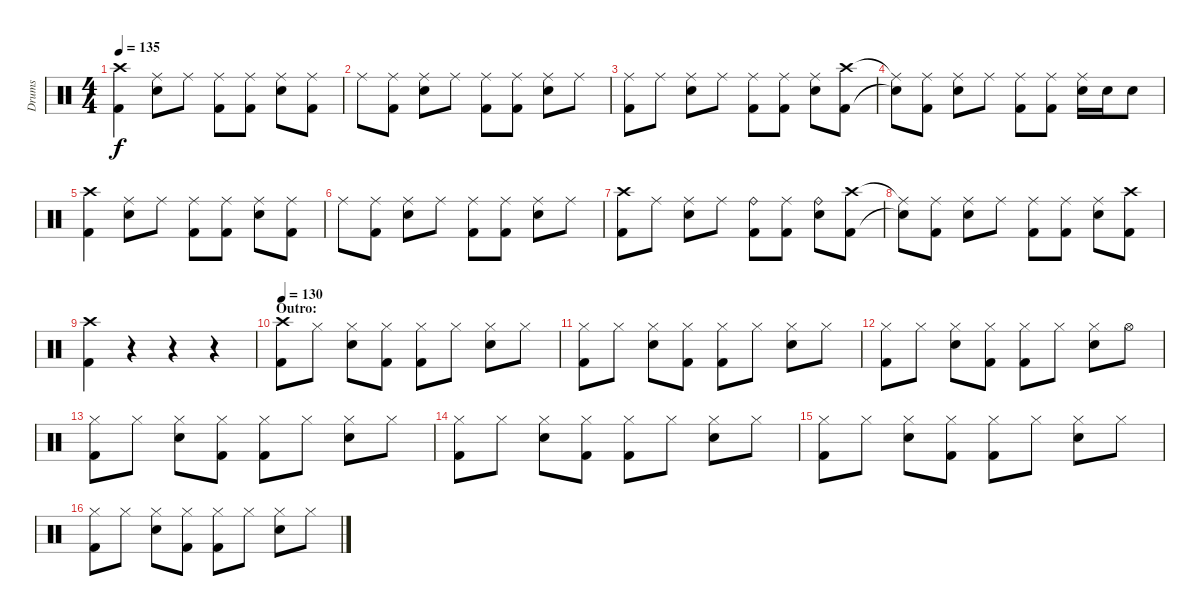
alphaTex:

\track ("Drums" "Drums") {instrument percussion}
\staff {score}
\articulation defaults
\ts (4 4)
\tempo 135
\clef neutral
\ks c
("Crash high (hit)" "Kick (hit) 2").4{dy f} ("Ride (middle)" "Electric Snare (hit)").8 "Ride (middle)".8 ("Ride (middle)" "Kick (hit) 2").8 ("Ride (middle)" "Kick (hit) 2").8 ("Ride (middle)" "Electric Snare (hit)").8 ("Ride (middle)" "Kick (hit) 2").8 |
"Ride (middle)".8 ("Ride (middle)" "Kick (hit) 2").8 ("Ride (middle)" "Electric Snare (hit)").8 "Ride (middle)".8 ("Ride (middle)" "Kick (hit) 2").8 ("Ride (middle)" "Kick (hit) 2").8 ("Ride (middle)" "Electric Snare (hit)").8 "Ride (middle)".8 |
("Ride (middle)" "Kick (hit) 2").8 "Ride (middle)".8 ("Ride (middle)" "Electric Snare (hit)").8 "Ride (middle)".8 ("Ride (middle)" "Kick (hit) 2").8 ("Ride (middle)" "Kick (hit) 2").8 ("Ride (middle)" "Electric Snare (hit)").8 ("Crash high (hit)" "Kick (hit) 2").8 |
("Ride (middle)"{t} "Snare (hit)"{t}).8 ("Ride (middle)" "Kick (hit) 2").8 ("Ride (middle)" "Electric Snare (hit)").8 "Ride (middle)".8 ("Ride (middle)" "Kick (hit) 2").8 ("Ride (middle)" "Kick (hit) 2").8 ("Ride (middle)" "Electric Snare (hit)").16 "Electric Snare (hit)".16 "Electric Snare (hit)".8 |
("Crash high (hit)" "Kick (hit) 2").4 ("Ride (middle)" "Electric Snare (hit)").8 "Ride (middle)".8 ("Ride (middle)" "Kick (hit) 2").8 ("Ride (middle)" "Kick (hit) 2").8 ("Ride (middle)" "Electric Snare (hit)").8 ("Ride (middle)" "Kick (hit) 2").8 |
"Ride (middle)".8 ("Ride (middle)" "Kick (hit) 2").8 ("Ride (middle)" "Electric Snare (hit)").8 "Ride (middle)".8 ("Ride (middle)" "Kick (hit) 2").8 ("Ride (middle)" "Kick (hit) 2").8 ("Ride (middle)" "Electric Snare (hit)").8 "Ride (middle)".8 |
("Crash high (hit)" "Kick (hit) 2").8 "Ride (middle)".8 ("Ride (middle)" "Electric Snare (hit)").8 "Ride (middle)".8 ("Ride (bell)" "Kick (hit) 2").8 ("Ride (middle)" "Kick (hit) 2").8 ("Ride (bell)" "Electric Snare (hit)").8 ("Crash high (hit)" "Kick (hit) 2").8 |
("Ride (middle)"{t} "Snare (hit)"{t}).8 ("Ride (middle)" "Kick (hit) 2").8 ("Ride (middle)" "Electric Snare (hit)").8 "Ride (middle)".8 ("Ride (middle)" "Kick (hit) 2").8 ("Ride (middle)" "Kick (hit) 2").8 ("Ride (middle)" "Electric Snare (hit)").8 ("Crash high (hit)" "Kick (hit) 2").8 |
("Crash high (hit)" "Kick (hit) 2").4 r.4 r.4 r.4 |
\section ("" "Outro:")
\tempo 130
("Crash high (hit)" "Kick (hit) 2").8 "Hi-Hat (closed)".8 ("Hi-Hat (closed)" "Electric Snare (hit)").8 ("Hi-Hat (closed)" "Kick (hit) 2").8 ("Hi-Hat (closed)" "Kick (hit) 2").8 "Hi-Hat (closed)".8 ("Hi-Hat (closed)" "Electric Snare (hit)").8 "Hi-Hat (closed)".8 |
("Hi-Hat (closed)" "Kick (hit) 2").8 "Hi-Hat (closed)".8 ("Hi-Hat (closed)" "Electric Snare (hit)").8 ("Hi-Hat (closed)" "Kick (hit) 2").8 ("Hi-Hat (closed)" "Kick (hit) 2").8 "Hi-Hat (closed)".8 ("Hi-Hat (closed)" "Electric Snare (hit)").8 "Hi-Hat (closed)".8 |
("Hi-Hat (closed)" "Kick (hit) 2").8 "Hi-Hat (closed)".8 ("Hi-Hat (closed)" "Electric Snare (hit)").8 ("Hi-Hat (closed)" "Kick (hit) 2").8 ("Hi-Hat (closed)" "Kick (hit) 2").8 "Hi-Hat (closed)".8 ("Hi-Hat (closed)" "Electric Snare (hit)").8 "Hi-Hat (open)".8 |
("Hi-Hat (closed)" "Kick (hit) 2").8 "Hi-Hat (closed)".8 ("Hi-Hat (closed)" "Electric Snare (hit)").8 ("Hi-Hat (closed)" "Kick (hit) 2").8 ("Hi-Hat (closed)" "Kick (hit) 2").8 "Hi-Hat (closed)".8 ("Hi-Hat (closed)" "Electric Snare (hit)").8 "Hi-Hat (closed)".8 |
("Hi-Hat (closed)" "Kick (hit) 2").8 "Hi-Hat (closed)".8 ("Hi-Hat (closed)" "Electric Snare (hit)").8 ("Hi-Hat (closed)" "Kick (hit) 2").8 ("Hi-Hat (closed)" "Kick (hit) 2").8 "Hi-Hat (closed)".8 ("Hi-Hat (closed)" "Electric Snare (hit)").8 "Hi-Hat (closed)".8 |
("Hi-Hat (closed)" "Kick (hit) 2").8 "Hi-Hat (closed)".8 ("Hi-Hat (closed)" "Electric Snare (hit)").8 ("Hi-Hat (closed)" "Kick (hit) 2").8 ("Hi-Hat (closed)" "Kick (hit) 2").8 "Hi-Hat (closed)".8 ("Hi-Hat (closed)" "Electric Snare (hit)").8 "Hi-Hat (closed)".8 |
("Hi-Hat (closed)" "Kick (hit) 2").8 "Hi-Hat (closed)".8 ("Hi-Hat (closed)" "Electric Snare (hit)").8 ("Hi-Hat (closed)" "Kick (hit) 2").8 ("Hi-Hat (closed)" "Kick (hit) 2").8 "Hi-Hat (closed)".8 ("Hi-Hat (closed)" "Electric Snare (hit)").8 "Hi-Hat (closed)".8
